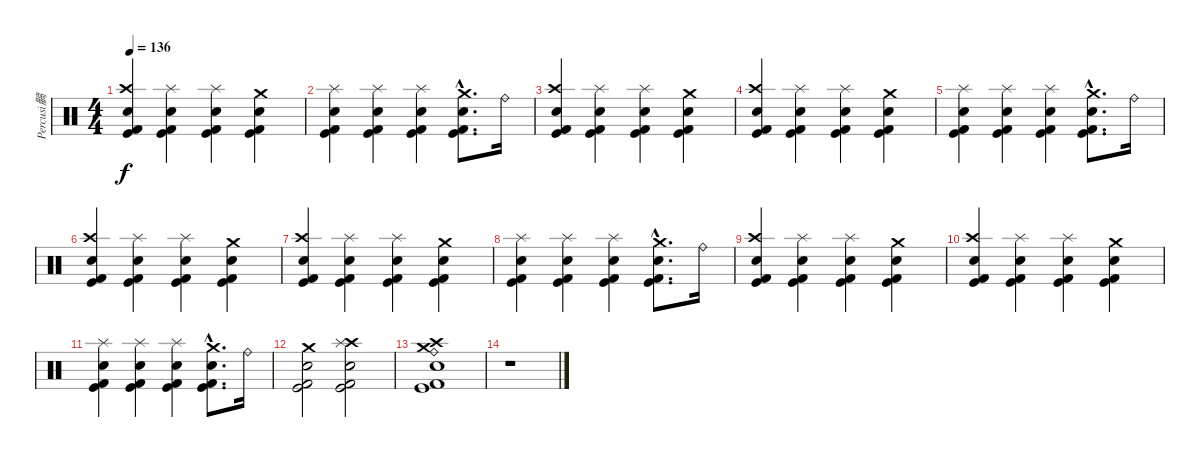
\track ("Percusi髇" "Percusi髇") {instrument percussion}
\staff {score}
\articulation defaults
\ts (4 4)
\tempo 136
\clef neutral
\ks c
("Electric Snare (hit)" "Crash high (hit)" "Kick (hit) 2" "Kick (hit)").4{dy f} ("Electric Snare (hit)" "Splash (hit)" "Kick (hit) 2" "Kick (hit)").4 ("Electric Snare (hit)" "Splash (hit)" "Kick (hit) 2" "Kick (hit)").4 ("Electric Snare (hit)" "Crash medium (hit)" "Kick (hit) 2" "Kick (hit)").4 |
("Electric Snare (hit)" "Splash (hit)" "Kick (hit) 2" "Kick (hit)").4 ("Electric Snare (hit)" "Splash (hit)" "Kick (hit) 2" "Kick (hit)").4 ("Electric Snare (hit)" "Splash (hit)" "Kick (hit) 2" "Kick (hit)").4 ("Electric Snare (hit)"{hac} "Crash medium (hit)"{hac} "Kick (hit) 2"{hac} "Kick (hit)"{hac}).8{d} "Ride (bell)".16 |
("Electric Snare (hit)" "Crash high (hit)" "Kick (hit) 2" "Kick (hit)").4 ("Electric Snare (hit)" "Splash (hit)" "Kick (hit) 2" "Kick (hit)").4 ("Electric Snare (hit)" "Splash (hit)" "Kick (hit) 2" "Kick (hit)").4 ("Electric Snare (hit)" "Crash medium (hit)" "Kick (hit) 2" "Kick (hit)").4 |
("Electric Snare (hit)" "Crash high (hit)" "Kick (hit) 2" "Kick (hit)").4 ("Electric Snare (hit)" "Splash (hit)" "Kick (hit) 2" "Kick (hit)").4 ("Electric Snare (hit)" "Splash (hit)" "Kick (hit) 2" "Kick (hit)").4 ("Electric Snare (hit)" "Crash medium (hit)" "Kick (hit) 2" "Kick (hit)").4 |
("Electric Snare (hit)" "Splash (hit)" "Kick (hit) 2" "Kick (hit)").4 ("Electric Snare (hit)" "Splash (hit)" "Kick (hit) 2" "Kick (hit)").4 ("Electric Snare (hit)" "Splash (hit)" "Kick (hit) 2" "Kick (hit)").4 ("Electric Snare (hit)"{hac} "Crash medium (hit)"{hac} "Kick (hit) 2"{hac} "Kick (hit)"{hac}).8{d} "Ride (bell)".16 |
("Electric Snare (hit)" "Crash high (hit)" "Kick (hit) 2" "Kick (hit)").4 ("Electric Snare (hit)" "Splash (hit)" "Kick (hit) 2" "Kick (hit)").4 ("Electric Snare (hit)" "Splash (hit)" "Kick (hit) 2" "Kick (hit)").4 ("Electric Snare (hit)" "Crash medium (hit)" "Kick (hit) 2" "Kick (hit)").4 |
("Electric Snare (hit)" "Crash high (hit)" "Kick (hit) 2" "Kick (hit)").4 ("Electric Snare (hit)" "Splash (hit)" "Kick (hit) 2" "Kick (hit)").4 ("Electric Snare (hit)" "Splash (hit)" "Kick (hit) 2" "Kick (hit)").4 ("Electric Snare (hit)" "Crash medium (hit)" "Kick (hit) 2" "Kick (hit)").4 |
("Electric Snare (hit)" "Splash (hit)" "Kick (hit) 2" "Kick (hit)").4 ("Electric Snare (hit)" "Splash (hit)" "Kick (hit) 2" "Kick (hit)").4 ("Electric Snare (hit)" "Splash (hit)" "Kick (hit) 2" "Kick (hit)").4 ("Electric Snare (hit)"{hac} "Crash medium (hit)"{hac} "Kick (hit) 2"{hac} "Kick (hit)"{hac}).8{d} "Ride (bell)".16 |
("Electric Snare (hit)" "Crash high (hit)" "Kick (hit) 2" "Kick (hit)").4 ("Electric Snare (hit)" "Splash (hit)" "Kick (hit) 2" "Kick (hit)").4 ("Electric Snare (hit)" "Splash (hit)" "Kick (hit) 2" "Kick (hit)").4 ("Electric Snare (hit)" "Crash medium (hit)" "Kick (hit) 2" "Kick (hit)").4 |
("Electric Snare (hit)" "Crash high (hit)" "Kick (hit) 2" "Kick (hit)").4 ("Electric Snare (hit)" "Splash (hit)" "Kick (hit) 2" "Kick (hit)").4 ("Electric Snare (hit)" "Splash (hit)" "Kick (hit) 2" "Kick (hit)").4 ("Electric Snare (hit)" "Crash medium (hit)" "Kick (hit) 2" "Kick (hit)").4 |
("Electric Snare (hit)" "Splash (hit)" "Kick (hit) 2" "Kick (hit)").4 ("Electric Snare (hit)" "Splash (hit)" "Kick (hit) 2" "Kick (hit)").4 ("Electric Snare (hit)" "Splash (hit)" "Kick (hit) 2" "Kick (hit)").4 ("Electric Snare (hit)"{hac} "Crash medium (hit)"{hac} "Kick (hit) 2"{hac} "Kick (hit)"{hac}).8{d} "Ride (bell)".16 |
("Electric Snare (hit)" "Crash medium (hit)" "Kick (hit) 2" "Kick (hit)").2 ("Electric Snare (hit)" "Crash high (hit)" "Splash (hit)" "Kick (hit) 2" "Kick (hit)").2 |
("Crash high (hit)" "Electric Snare (hit)" "Crash medium (hit)" "Ride (bell)" "Kick (hit)" "Kick (hit) 2").1 |
r.1
